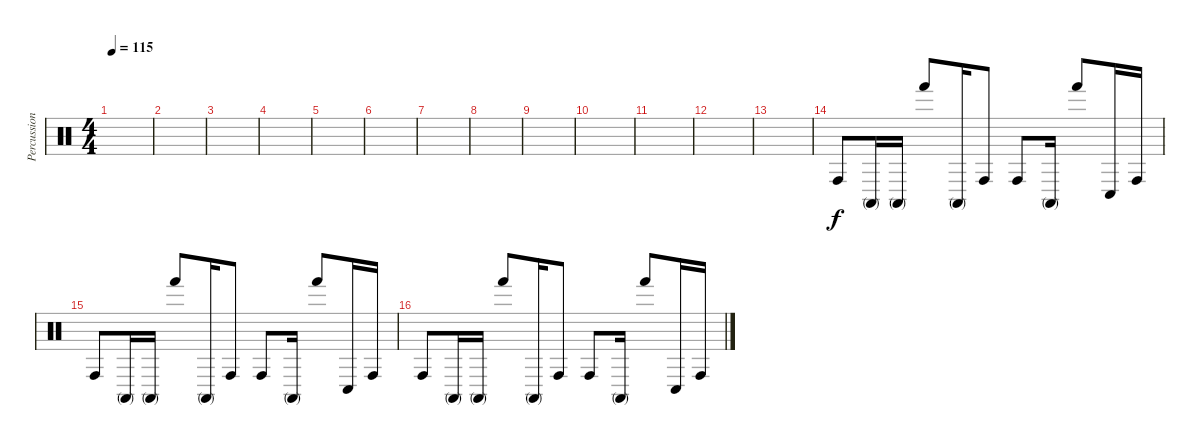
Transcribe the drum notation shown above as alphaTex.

\track ("Percussion" "Percussion") {instrument percussion}
\staff {score}
\articulation defaults
\ts (4 4)
\tempo 115
\clef neutral
\ks c
|
|
|
|
|
|
|
|
|
|
|
|
|
"Conga high (hit)".8 "Conga high (mute)".16 "Conga high (mute)".16 "Hand (hit)".8 "Conga high (mute)".16 "Conga high (hit)".8 "Conga high (hit)".8 "Conga high (mute)".16 "Hand (hit)".8 "Conga low (hit)".16 "Conga high (hit)".16 |
"Conga high (hit)".8 "Conga high (mute)".16 "Conga high (mute)".16 "Hand (hit)".8 "Conga high (mute)".16 "Conga high (hit)".8 "Conga high (hit)".8 "Conga high (mute)".16 "Hand (hit)".8 "Conga low (hit)".16 "Conga high (hit)".16 |
"Conga high (hit)".8 "Conga high (mute)".16 "Conga high (mute)".16 "Hand (hit)".8 "Conga high (mute)".16 "Conga high (hit)".8 "Conga high (hit)".8 "Conga high (mute)".16 "Hand (hit)".8 "Conga low (hit)".16 "Conga high (hit)".16
